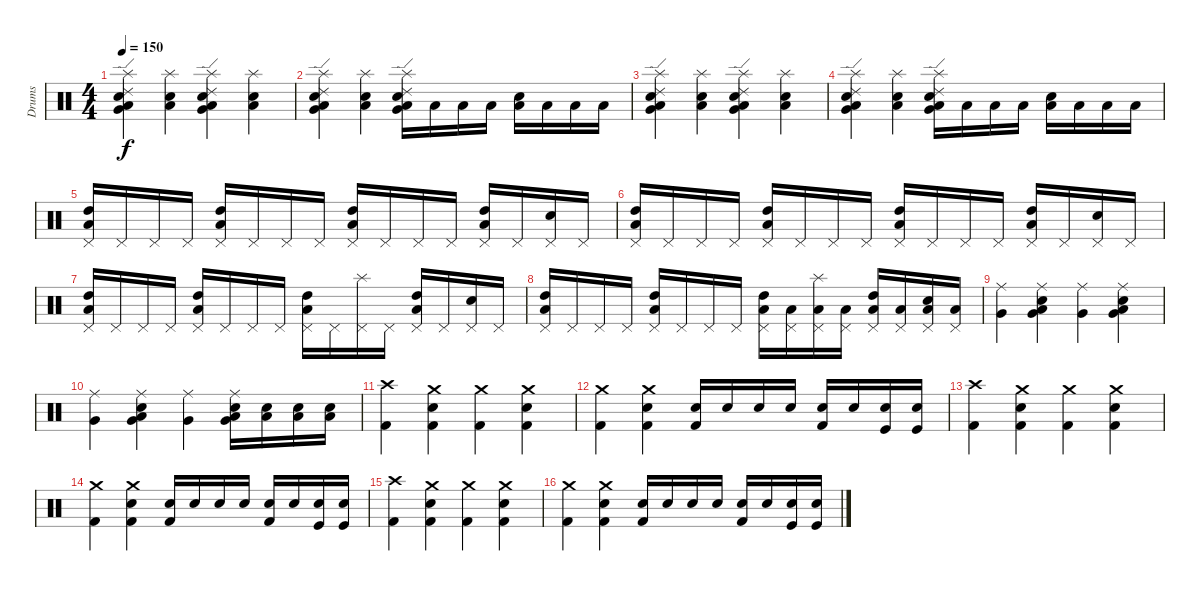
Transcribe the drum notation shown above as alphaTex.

\track ("Drums" "Drums") {instrument percussion}
\staff {score}
\articulation defaults
\ts (4 4)
\tempo 150
\clef neutral
\ks c
("Snare (hit) 2" "Very Low Tom (hit)" "Ride (edge) 2" "Splash (hit)" "Low Tom (hit)").4{dy f} ("Snare (hit) 2" "Low Tom (hit)" "Splash (hit)").4 ("Snare (hit) 2" "Very Low Tom (hit)" "Ride (edge) 2" "Splash (hit)" "Low Tom (hit)").4 ("Snare (hit) 2" "Splash (hit)" "Low Tom (hit)").4 |
("Snare (hit) 2" "Very Low Tom (hit)" "Ride (edge) 2" "Splash (hit)" "Low Tom (hit)").4 ("Snare (hit) 2" "Splash (hit)" "Low Tom (hit)").4 ("Snare (hit) 2" "Very Low Tom (hit)" "Ride (edge) 2" "Splash (hit)" "Low Tom (hit)").16 "Low Tom (hit)".16 "Low Tom (hit)".16 "Low Tom (hit)".16 ("Snare (hit) 2" "Low Tom (hit)").16 "Low Tom (hit)".16 "Low Tom (hit)".16 "Low Tom (hit)".16 |
("Snare (hit) 2" "Very Low Tom (hit)" "Ride (edge) 2" "Low Tom (hit)" "Splash (hit)").4 ("Snare (hit) 2" "Splash (hit)" "Low Tom (hit)").4 ("Snare (hit) 2" "Very Low Tom (hit)" "Ride (edge) 2" "Low Tom (hit)" "Splash (hit)").4 ("Snare (hit) 2" "Splash (hit)" "Low Tom (hit)").4 |
("Snare (hit) 2" "Very Low Tom (hit)" "Ride (edge) 2" "Splash (hit)" "Low Tom (hit)").4 ("Snare (hit) 2" "Splash (hit)" "Low Tom (hit)").4 ("Snare (hit) 2" "Very Low Tom (hit)" "Ride (edge) 2" "Splash (hit)" "Low Tom (hit)").16 "Low Tom (hit)".16 "Low Tom (hit)".16 "Low Tom (hit)".16 ("Snare (hit) 2" "Low Tom (hit)").16 "Low Tom (hit)".16 "Low Tom (hit)".16 "Low Tom (hit)".16 |
("Pedal Hi-Hat (hit)" "High Tom (hit)" "Low Tom (hit)").16 "Pedal Hi-Hat (hit)".16 "Pedal Hi-Hat (hit)".16 "Pedal Hi-Hat (hit)".16 ("Pedal Hi-Hat (hit)" "High Tom (hit)" "Low Tom (hit)").16 "Pedal Hi-Hat (hit)".16 "Pedal Hi-Hat (hit)".16 "Pedal Hi-Hat (hit)".16 ("Pedal Hi-Hat (hit)" "High Tom (hit)" "Low Tom (hit)").16 "Pedal Hi-Hat (hit)".16 "Pedal Hi-Hat (hit)".16 "Pedal Hi-Hat (hit)".16 ("Pedal Hi-Hat (hit)" "High Tom (hit)" "Low Tom (hit)").16 "Pedal Hi-Hat (hit)".16 ("Pedal Hi-Hat (hit)" "Electric Snare (hit)").16 "Pedal Hi-Hat (hit)".16 |
("Pedal Hi-Hat (hit)" "High Tom (hit)" "Low Tom (hit)").16 "Pedal Hi-Hat (hit)".16 "Pedal Hi-Hat (hit)".16 "Pedal Hi-Hat (hit)".16 ("Pedal Hi-Hat (hit)" "High Tom (hit)" "Low Tom (hit)").16 "Pedal Hi-Hat (hit)".16 "Pedal Hi-Hat (hit)".16 "Pedal Hi-Hat (hit)".16 ("Pedal Hi-Hat (hit)" "High Tom (hit)" "Low Tom (hit)").16 "Pedal Hi-Hat (hit)".16 "Pedal Hi-Hat (hit)".16 "Pedal Hi-Hat (hit)".16 ("Pedal Hi-Hat (hit)" "High Tom (hit)" "Low Tom (hit)").16 "Pedal Hi-Hat (hit)".16 ("Pedal Hi-Hat (hit)" "Electric Snare (hit)").16 "Pedal Hi-Hat (hit)".16 |
("Pedal Hi-Hat (hit)" "High Tom (hit)" "Low Tom (hit)").16 "Pedal Hi-Hat (hit)".16 "Pedal Hi-Hat (hit)".16 "Pedal Hi-Hat (hit)".16 ("Pedal Hi-Hat (hit)" "High Tom (hit)" "Low Tom (hit)").16 "Pedal Hi-Hat (hit)".16 "Pedal Hi-Hat (hit)".16 "Pedal Hi-Hat (hit)".16 ("Pedal Hi-Hat (hit)" "High Tom (hit)" "Low Tom (hit)").16 "Pedal Hi-Hat (hit)".16 ("Pedal Hi-Hat (hit)" "Splash (hit)").16 "Pedal Hi-Hat (hit)".16 ("Pedal Hi-Hat (hit)" "High Tom (hit)" "Low Tom (hit)").16 "Pedal Hi-Hat (hit)".16 ("Pedal Hi-Hat (hit)" "Electric Snare (hit)").16 "Pedal Hi-Hat (hit)".16 |
("Pedal Hi-Hat (hit)" "High Tom (hit)" "Low Tom (hit)").16 "Pedal Hi-Hat (hit)".16 "Pedal Hi-Hat (hit)".16 "Pedal Hi-Hat (hit)".16 ("Pedal Hi-Hat (hit)" "High Tom (hit)" "Low Tom (hit)").16 "Pedal Hi-Hat (hit)".16 "Pedal Hi-Hat (hit)".16 "Pedal Hi-Hat (hit)".16 ("Pedal Hi-Hat (hit)" "High Tom (hit)" "Low Tom (hit)").16 ("Low Tom (hit)" "Pedal Hi-Hat (hit)").16 ("Low Tom (hit)" "Pedal Hi-Hat (hit)" "Splash (hit)").16 ("Low Tom (hit)" "Pedal Hi-Hat (hit)").16 ("Pedal Hi-Hat (hit)" "High Tom (hit)" "Low Tom (hit)").16 ("Low Tom (hit)" "Pedal Hi-Hat (hit)").16 ("Low Tom (hit)" "Pedal Hi-Hat (hit)" "Electric Snare (hit)").16 ("Low Tom (hit)" "Pedal Hi-Hat (hit)").16 |
("Ride (middle)" "Very Low Tom (hit)").4 ("Ride (middle)" "Very Low Tom (hit)" "Electric Snare (hit)" "Low Tom (hit)").4 ("Ride (middle)" "Very Low Tom (hit)").4 ("Ride (middle)" "Very Low Tom (hit)" "Electric Snare (hit)" "Low Tom (hit)").4 |
("Ride (middle)" "Very Low Tom (hit)").4 ("Ride (middle)" "Very Low Tom (hit)" "Electric Snare (hit)" "Low Tom (hit)").4 ("Ride (middle)" "Very Low Tom (hit)").4 ("Ride (middle)" "Very Low Tom (hit)" "Electric Snare (hit)" "Low Tom (hit)").16 ("Electric Snare (hit)" "Low Tom (hit)").16 ("Electric Snare (hit)" "Low Tom (hit)").16 ("Electric Snare (hit)" "Low Tom (hit)").16 |
("Crash high (hit)" "Kick (hit) 2").4 ("Crash medium (hit)" "Kick (hit) 2" "Electric Snare (hit)").4 ("Crash medium (hit)" "Kick (hit) 2").4 ("Crash medium (hit)" "Kick (hit) 2" "Electric Snare (hit)").4 |
("Crash medium (hit)" "Kick (hit) 2").4 ("Crash medium (hit)" "Kick (hit) 2" "Electric Snare (hit)").4 ("Kick (hit) 2" "Electric Snare (hit)").16 "Electric Snare (hit)".16 "Electric Snare (hit)".16 "Electric Snare (hit)".16 ("Snare (hit) 2" "Kick (hit) 2").16 "Snare (hit) 2".16 ("Kick (hit)" "Snare (hit) 2").16 ("Kick (hit)" "Snare (hit) 2").16 |
("Kick (hit) 2" "Crash high (hit)").4 ("Crash medium (hit)" "Kick (hit) 2" "Electric Snare (hit)").4 ("Crash medium (hit)" "Kick (hit) 2").4 ("Crash medium (hit)" "Kick (hit) 2" "Electric Snare (hit)").4 |
("Crash medium (hit)" "Kick (hit) 2").4 ("Crash medium (hit)" "Kick (hit) 2" "Electric Snare (hit)").4 ("Kick (hit) 2" "Electric Snare (hit)").16 "Electric Snare (hit)".16 "Electric Snare (hit)".16 "Electric Snare (hit)".16 ("Snare (hit) 2" "Kick (hit) 2").16 "Snare (hit) 2".16 ("Kick (hit)" "Snare (hit) 2").16 ("Kick (hit)" "Snare (hit) 2").16 |
("Crash high (hit)" "Kick (hit) 2").4 ("Crash medium (hit)" "Kick (hit) 2" "Electric Snare (hit)").4 ("Crash medium (hit)" "Kick (hit) 2").4 ("Crash medium (hit)" "Kick (hit) 2" "Electric Snare (hit)").4 |
("Crash medium (hit)" "Kick (hit) 2").4 ("Crash medium (hit)" "Kick (hit) 2" "Electric Snare (hit)").4 ("Kick (hit) 2" "Electric Snare (hit)").16 "Electric Snare (hit)".16 "Electric Snare (hit)".16 "Electric Snare (hit)".16 ("Snare (hit) 2" "Kick (hit) 2").16 "Snare (hit) 2".16 ("Kick (hit)" "Snare (hit) 2").16 ("Kick (hit)" "Snare (hit) 2").16
